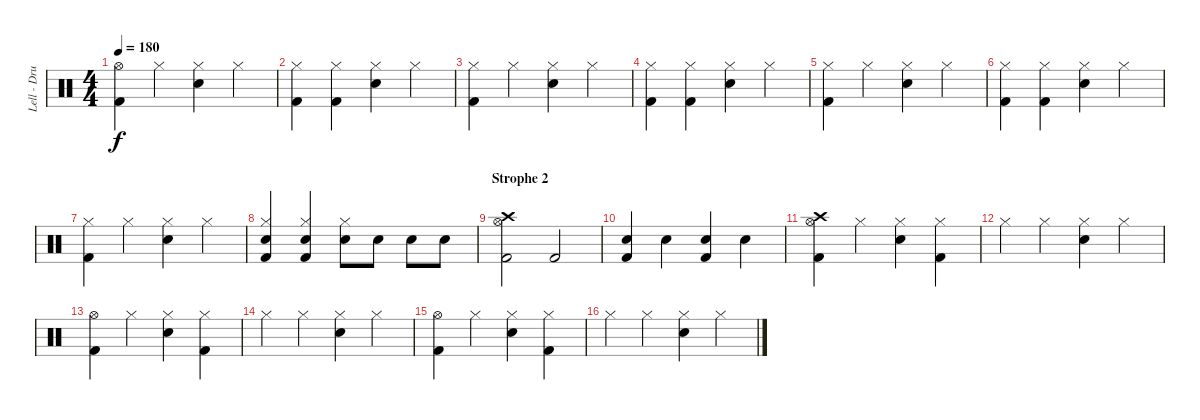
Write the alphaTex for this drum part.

\track ("Lell - Drums" "Lell - Dru") {instrument percussion}
\staff {score}
\articulation defaults
\ts (4 4)
\tempo 180
\clef neutral
\ks c
("Hi-Hat (open)" "Kick (hit) 2").4{dy f} "Hi-Hat (closed)".4 ("Hi-Hat (closed)" "Snare (hit) 2").4 "Hi-Hat (closed)".4 |
("Hi-Hat (closed)" "Kick (hit) 2").4 ("Hi-Hat (closed)" "Kick (hit) 2").4 ("Hi-Hat (closed)" "Snare (hit) 2").4 "Hi-Hat (closed)".4 |
("Hi-Hat (closed)" "Kick (hit) 2").4 "Hi-Hat (closed)".4 ("Hi-Hat (closed)" "Snare (hit) 2").4 "Hi-Hat (closed)".4 |
("Hi-Hat (closed)" "Kick (hit) 2").4 ("Hi-Hat (closed)" "Kick (hit) 2").4 ("Hi-Hat (closed)" "Snare (hit) 2").4 "Hi-Hat (closed)".4 |
("Hi-Hat (closed)" "Kick (hit) 2").4 "Hi-Hat (closed)".4 ("Hi-Hat (closed)" "Snare (hit) 2").4 "Hi-Hat (closed)".4 |
("Hi-Hat (closed)" "Kick (hit) 2").4 ("Hi-Hat (closed)" "Kick (hit) 2").4 ("Hi-Hat (closed)" "Snare (hit) 2").4 "Hi-Hat (closed)".4 |
("Hi-Hat (closed)" "Kick (hit) 2").4 "Hi-Hat (closed)".4 ("Hi-Hat (closed)" "Snare (hit) 2").4 "Hi-Hat (closed)".4 |
("Hi-Hat (closed)" "Snare (hit) 2" "Kick (hit) 2").4 ("Hi-Hat (closed)" "Snare (hit) 2" "Kick (hit) 2").4 ("Hi-Hat (closed)" "Snare (hit) 2").8 "Snare (hit) 2".8 "Snare (hit) 2".8 "Snare (hit) 2".8 |
\section ("" "Strophe 2")
("Crash high (hit)" "Hi-Hat (open)" "Kick (hit) 2").2 "Kick (hit) 2".2 |
("Snare (hit) 2" "Kick (hit) 2").4 "Snare (hit) 2".4 ("Snare (hit) 2" "Kick (hit) 2").4 "Snare (hit) 2".4 |
("Crash high (hit)" "Hi-Hat (open)" "Kick (hit) 2").4 "Hi-Hat (closed)".4 ("Hi-Hat (closed)" "Snare (hit) 2").4 ("Hi-Hat (closed)" "Kick (hit) 2").4 |
"Hi-Hat (closed)".4 "Hi-Hat (closed)".4 ("Hi-Hat (closed)" "Snare (hit) 2").4 "Hi-Hat (closed)".4 |
("Hi-Hat (open)" "Kick (hit) 2").4 "Hi-Hat (closed)".4 ("Hi-Hat (closed)" "Snare (hit) 2").4 ("Hi-Hat (closed)" "Kick (hit) 2").4 |
"Hi-Hat (closed)".4 "Hi-Hat (closed)".4 ("Hi-Hat (closed)" "Snare (hit) 2").4 "Hi-Hat (closed)".4 |
("Hi-Hat (open)" "Kick (hit) 2").4 "Hi-Hat (closed)".4 ("Hi-Hat (closed)" "Snare (hit) 2").4 ("Hi-Hat (closed)" "Kick (hit) 2").4 |
"Hi-Hat (closed)".4 "Hi-Hat (closed)".4 ("Hi-Hat (closed)" "Snare (hit) 2").4 "Hi-Hat (closed)".4
